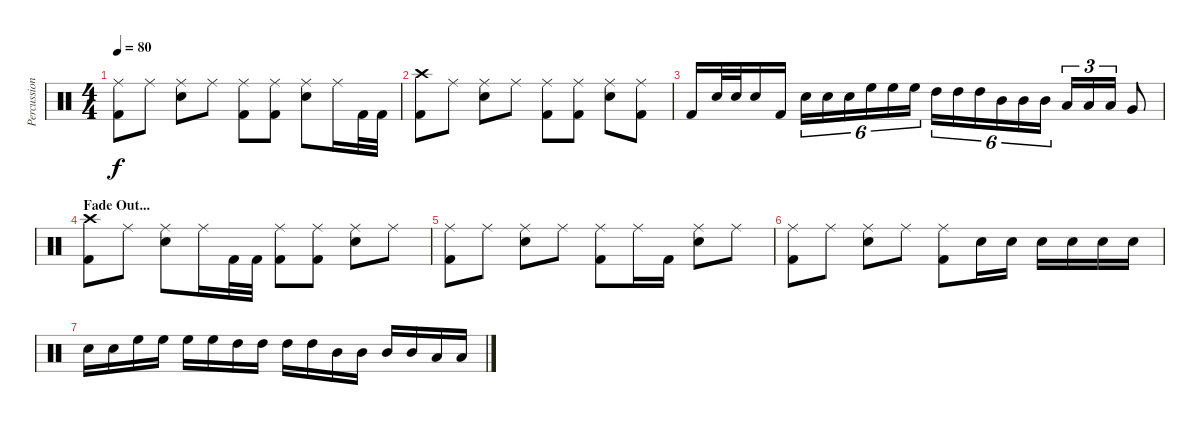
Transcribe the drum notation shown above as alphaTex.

\track ("Percussion" "Percussion") {instrument percussion}
\staff {score}
\articulation defaults
\ts (4 4)
\tempo 80
\clef neutral
\ks c
("Ride (middle)" "Kick (hit) 2").8{dy f} "Ride (middle)".8 ("Ride (middle)" "Electric Snare (hit)").8 "Ride (middle)".8 ("Ride (middle)" "Kick (hit) 2").8 ("Ride (middle)" "Kick (hit) 2").8 ("Ride (middle)" "Electric Snare (hit)").8 "Ride (middle)".16 "Kick (hit) 2".32 "Kick (hit) 2".32 |
("Crash high (hit)" "Kick (hit) 2").8 "Ride (middle)".8 ("Ride (middle)" "Electric Snare (hit)").8 "Ride (middle)".8 ("Ride (middle)" "Kick (hit) 2").8 ("Ride (middle)" "Kick (hit) 2").8 ("Ride (middle)" "Electric Snare (hit)").8 ("Ride (middle)" "Kick (hit) 2").8 |
"Kick (hit) 2".16 "Electric Snare (hit)".32 "Electric Snare (hit)".32 "Electric Snare (hit)".16 "Kick (hit) 2".16 "Electric Snare (hit)".16{tu (6 4)} "Electric Snare (hit)".16{tu (6 4)} "Electric Snare (hit)".16{tu (6 4)} "High Floor Tom (hit)".16{tu (6 4)} "High Floor Tom (hit)".16{tu (6 4)} "High Floor Tom (hit)".16{tu (6 4)} "High Tom (hit)".16{tu (6 4)} "High Tom (hit)".16{tu (6 4)} "High Tom (hit)".16{tu (6 4)} "Mid Tom (hit)".16{tu (6 4)} "Mid Tom (hit)".16{tu (6 4)} "Mid Tom (hit)".16{tu (6 4)} "Low Tom (hit)".16{tu (3 2)} "Low Tom (hit)".16{tu (3 2)} "Low Tom (hit)".16{tu (3 2)} "Very Low Tom (hit)".8 |
\section ("" "Fade Out...")
("Crash high (hit)" "Kick (hit) 2").8 "Ride (middle)".8 ("Ride (middle)" "Electric Snare (hit)").8 "Ride (middle)".16 "Kick (hit) 2".32 "Kick (hit) 2".32 ("Ride (middle)" "Kick (hit) 2").8 ("Ride (middle)" "Kick (hit) 2").8 ("Ride (middle)" "Electric Snare (hit)").8 "Ride (middle)".8 |
("Ride (middle)" "Kick (hit) 2").8 "Ride (middle)".8 ("Ride (middle)" "Electric Snare (hit)").8 "Ride (middle)".8 ("Ride (middle)" "Kick (hit) 2").8 "Ride (middle)".16 "Kick (hit) 2".16 ("Ride (middle)" "Electric Snare (hit)").8 "Ride (middle)".8 |
("Ride (middle)" "Kick (hit) 2").8 "Ride (middle)".8 ("Ride (middle)" "Electric Snare (hit)").8 "Ride (middle)".8 ("Ride (middle)" "Kick (hit) 2").8 "Electric Snare (hit)".16 "Electric Snare (hit)".16 "Electric Snare (hit)".16 "Electric Snare (hit)".16 "Electric Snare (hit)".16 "Electric Snare (hit)".16 |
"Electric Snare (hit)".16 "Electric Snare (hit)".16 "High Floor Tom (hit)".16 "High Floor Tom (hit)".16 "High Floor Tom (hit)".16 "High Floor Tom (hit)".16 "High Tom (hit)".16 "High Tom (hit)".16 "High Tom (hit)".16 "High Tom (hit)".16 "Mid Tom (hit)".16 "Mid Tom (hit)".16 "Mid Tom (hit)".16 "Mid Tom (hit)".16 "Low Tom (hit)".16 "Low Tom (hit)".16
